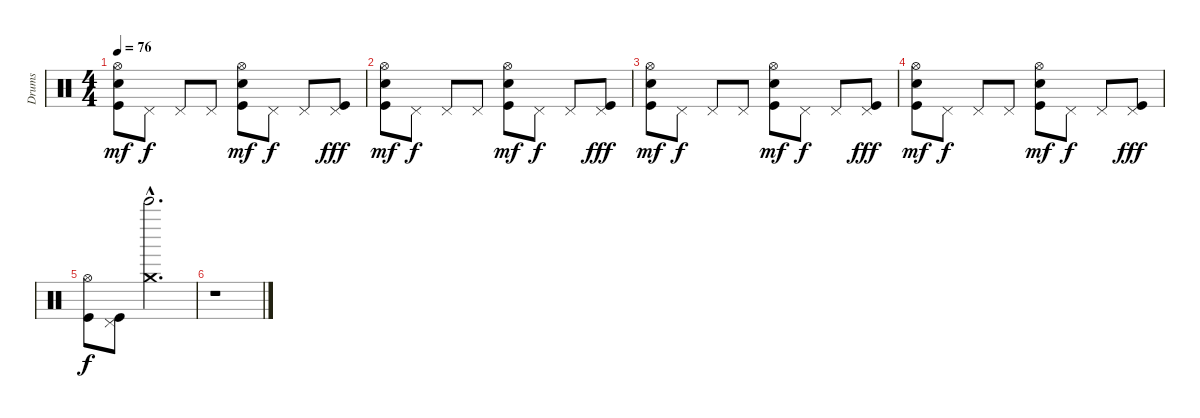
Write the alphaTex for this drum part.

\track ("Drums" "Drums") {instrument percussion}
\staff {score}
\articulation defaults
\ts (4 4)
\tempo 76
\clef neutral
\ks c
("Electric Snare (hit)" "Kick (hit)" "Hi-Hat (open)").8{dy mf} "Pedal Hi-Hat (hit)".8{dy f} "Pedal Hi-Hat (hit)".8 "Pedal Hi-Hat (hit)".8 ("Electric Snare (hit)" "Kick (hit)" "Hi-Hat (open)").8{dy mf} "Pedal Hi-Hat (hit)".8{dy f} "Pedal Hi-Hat (hit)".8 ("Kick (hit)" "Pedal Hi-Hat (hit)").8{dy fff} |
("Electric Snare (hit)" "Kick (hit)" "Hi-Hat (open)").8{dy mf} "Pedal Hi-Hat (hit)".8{dy f} "Pedal Hi-Hat (hit)".8 "Pedal Hi-Hat (hit)".8 ("Electric Snare (hit)" "Kick (hit)" "Hi-Hat (open)").8{dy mf} "Pedal Hi-Hat (hit)".8{dy f} "Pedal Hi-Hat (hit)".8 ("Kick (hit)" "Pedal Hi-Hat (hit)").8{dy fff} |
("Electric Snare (hit)" "Kick (hit)" "Hi-Hat (open)").8{dy mf} "Pedal Hi-Hat (hit)".8{dy f} "Pedal Hi-Hat (hit)".8 "Pedal Hi-Hat (hit)".8 ("Electric Snare (hit)" "Kick (hit)" "Hi-Hat (open)").8{dy mf} "Pedal Hi-Hat (hit)".8{dy f} "Pedal Hi-Hat (hit)".8 ("Kick (hit)" "Pedal Hi-Hat (hit)").8{dy fff} |
("Electric Snare (hit)" "Kick (hit)" "Hi-Hat (open)").8{dy mf} "Pedal Hi-Hat (hit)".8{dy f} "Pedal Hi-Hat (hit)".8 "Pedal Hi-Hat (hit)".8 ("Electric Snare (hit)" "Kick (hit)" "Hi-Hat (open)").8{dy mf} "Pedal Hi-Hat (hit)".8{dy f} "Pedal Hi-Hat (hit)".8 ("Kick (hit)" "Pedal Hi-Hat (hit)").8{dy fff} |
("Kick (hit)" "Hi-Hat (open)").8{dy f} ("Kick (hit)" "Pedal Hi-Hat (hit)").8 ("Bell Tree (hit)"{hac} "Crash medium (hit)"{hac}).2{d} |
r.1
